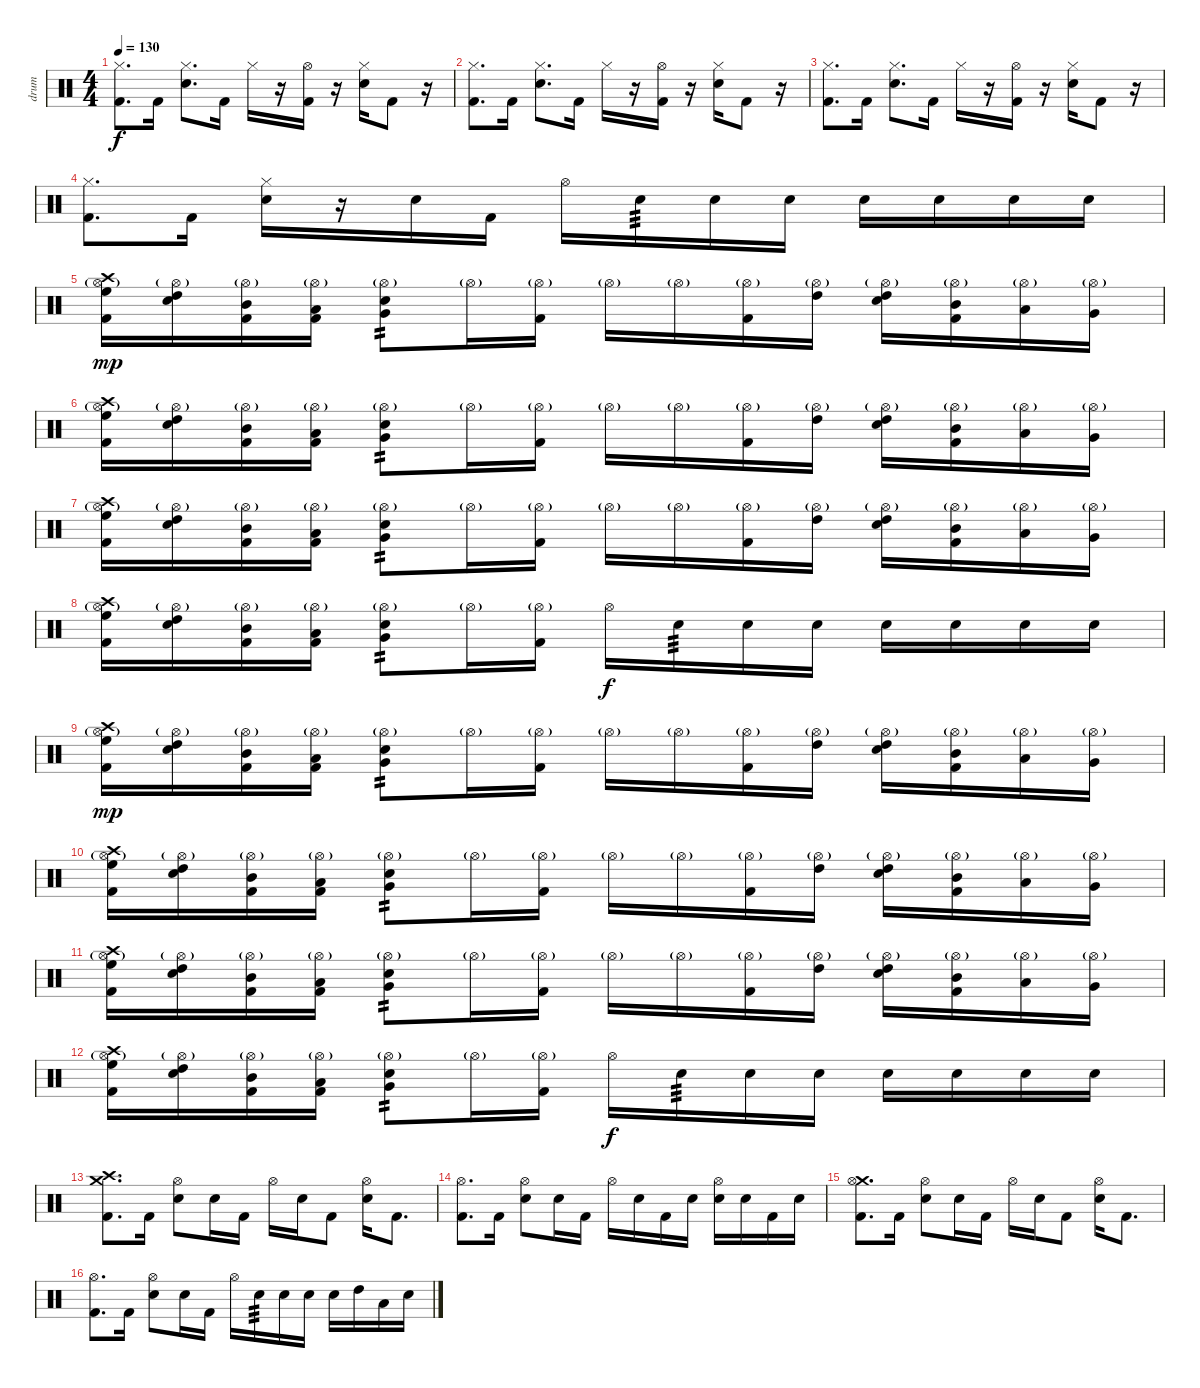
\track ("drum" "drum") {instrument percussion}
\staff {score}
\articulation defaults
\ts (4 4)
\tempo 130
\clef neutral
\ks c
("Hi-Hat (closed)" "Kick (hit) 2").8{d dy f} "Kick (hit) 2".16 ("Hi-Hat (closed)" "Electric Snare (hit)").8{d} "Kick (hit) 2".16 "Hi-Hat (closed)".16 r.16 ("Hi-Hat (open)" "Kick (hit) 2").16 r.16 ("Hi-Hat (closed)" "Electric Snare (hit)").16 "Kick (hit) 2".8 r.16 |
("Hi-Hat (closed)" "Kick (hit) 2").8{d} "Kick (hit) 2".16 ("Hi-Hat (closed)" "Electric Snare (hit)").8{d} "Kick (hit) 2".16 "Hi-Hat (closed)".16 r.16 ("Hi-Hat (open)" "Kick (hit) 2").16 r.16 ("Hi-Hat (closed)" "Electric Snare (hit)").16 "Kick (hit) 2".8 r.16 |
("Hi-Hat (closed)" "Kick (hit) 2").8{d} "Kick (hit) 2".16 ("Hi-Hat (closed)" "Electric Snare (hit)").8{d} "Kick (hit) 2".16 "Hi-Hat (closed)".16 r.16 ("Hi-Hat (open)" "Kick (hit) 2").16 r.16 ("Hi-Hat (closed)" "Electric Snare (hit)").16 "Kick (hit) 2".8 r.16 |
("Hi-Hat (closed)" "Kick (hit) 2").8{d} "Kick (hit) 2".16 ("Hi-Hat (closed)" "Electric Snare (hit)").16 r.16 "Electric Snare (hit)".16 "Kick (hit) 2".16 "Hi-Hat (open)".16 "Electric Snare (hit)".16{tp 3} "Electric Snare (hit)".16 "Electric Snare (hit)".16 "Electric Snare (hit)".16 "Electric Snare (hit)".16 "Electric Snare (hit)".16 "Electric Snare (hit)".16 |
("Crash high (hit)" "Hi-Hat (open)"{g} "High Floor Tom (hit)" "Kick (hit) 2").16{dy mp} ("Hi-Hat (open)"{g} "High Tom (hit)" "Electric Snare (hit)").16 ("Hi-Hat (open)"{g} "Mid Tom (hit)" "Kick (hit) 2").16 ("Hi-Hat (open)"{g} "Low Tom (hit)" "Kick (hit) 2").16 ("Hi-Hat (open)"{g} "Very Low Tom (hit)" "Electric Snare (hit)").8{tp 2} "Hi-Hat (open)"{g}.16 ("Hi-Hat (open)"{g} "Kick (hit) 2").16 "Hi-Hat (open)"{g}.16 "Hi-Hat (open)"{g}.16 ("Hi-Hat (open)"{g} "Kick (hit) 2").16 ("Hi-Hat (open)"{g} "High Tom (hit)").16 ("Hi-Hat (open)"{g} "High Tom (hit)" "Electric Snare (hit)").16 ("Hi-Hat (open)"{g} "Mid Tom (hit)" "Kick (hit) 2").16 ("Hi-Hat (open)"{g} "Low Tom (hit)").16 ("Hi-Hat (open)"{g} "Very Low Tom (hit)").16 |
("Crash high (hit)" "Hi-Hat (open)"{g} "High Floor Tom (hit)" "Kick (hit) 2").16 ("Hi-Hat (open)"{g} "High Tom (hit)" "Electric Snare (hit)").16 ("Hi-Hat (open)"{g} "Mid Tom (hit)" "Kick (hit) 2").16 ("Hi-Hat (open)"{g} "Low Tom (hit)" "Kick (hit) 2").16 ("Hi-Hat (open)"{g} "Very Low Tom (hit)" "Electric Snare (hit)").8{tp 2} "Hi-Hat (open)"{g}.16 ("Hi-Hat (open)"{g} "Kick (hit) 2").16 "Hi-Hat (open)"{g}.16 "Hi-Hat (open)"{g}.16 ("Hi-Hat (open)"{g} "Kick (hit) 2").16 ("Hi-Hat (open)"{g} "High Tom (hit)").16 ("Hi-Hat (open)"{g} "High Tom (hit)" "Electric Snare (hit)").16 ("Hi-Hat (open)"{g} "Mid Tom (hit)" "Kick (hit) 2").16 ("Hi-Hat (open)"{g} "Low Tom (hit)").16 ("Hi-Hat (open)"{g} "Very Low Tom (hit)").16 |
("Crash high (hit)" "Hi-Hat (open)"{g} "High Floor Tom (hit)" "Kick (hit) 2").16 ("Hi-Hat (open)"{g} "High Tom (hit)" "Electric Snare (hit)").16 ("Hi-Hat (open)"{g} "Mid Tom (hit)" "Kick (hit) 2").16 ("Hi-Hat (open)"{g} "Low Tom (hit)" "Kick (hit) 2").16 ("Hi-Hat (open)"{g} "Very Low Tom (hit)" "Electric Snare (hit)").8{tp 2} "Hi-Hat (open)"{g}.16 ("Hi-Hat (open)"{g} "Kick (hit) 2").16 "Hi-Hat (open)"{g}.16 "Hi-Hat (open)"{g}.16 ("Hi-Hat (open)"{g} "Kick (hit) 2").16 ("Hi-Hat (open)"{g} "High Tom (hit)").16 ("Hi-Hat (open)"{g} "High Tom (hit)" "Electric Snare (hit)").16 ("Hi-Hat (open)"{g} "Mid Tom (hit)" "Kick (hit) 2").16 ("Hi-Hat (open)"{g} "Low Tom (hit)").16 ("Hi-Hat (open)"{g} "Very Low Tom (hit)").16 |
("Crash high (hit)" "Hi-Hat (open)"{g} "High Floor Tom (hit)" "Kick (hit) 2").16 ("Hi-Hat (open)"{g} "High Tom (hit)" "Electric Snare (hit)").16 ("Hi-Hat (open)"{g} "Mid Tom (hit)" "Kick (hit) 2").16 ("Hi-Hat (open)"{g} "Low Tom (hit)" "Kick (hit) 2").16 ("Hi-Hat (open)"{g} "Very Low Tom (hit)" "Electric Snare (hit)").8{tp 2} "Hi-Hat (open)"{g}.16 ("Hi-Hat (open)"{g} "Kick (hit) 2").16 "Hi-Hat (open)".16{dy f} "Electric Snare (hit)".16{tp 3} "Electric Snare (hit)".16 "Electric Snare (hit)".16 "Electric Snare (hit)".16 "Electric Snare (hit)".16 "Electric Snare (hit)".16 "Electric Snare (hit)".16 |
("Crash high (hit)" "Hi-Hat (open)"{g} "High Floor Tom (hit)" "Kick (hit) 2").16{dy mp} ("Hi-Hat (open)"{g} "High Tom (hit)" "Electric Snare (hit)").16 ("Hi-Hat (open)"{g} "Mid Tom (hit)" "Kick (hit) 2").16 ("Hi-Hat (open)"{g} "Low Tom (hit)" "Kick (hit) 2").16 ("Hi-Hat (open)"{g} "Very Low Tom (hit)" "Electric Snare (hit)").8{tp 2} "Hi-Hat (open)"{g}.16 ("Hi-Hat (open)"{g} "Kick (hit) 2").16 "Hi-Hat (open)"{g}.16 "Hi-Hat (open)"{g}.16 ("Hi-Hat (open)"{g} "Kick (hit) 2").16 ("Hi-Hat (open)"{g} "High Tom (hit)").16 ("Hi-Hat (open)"{g} "High Tom (hit)" "Electric Snare (hit)").16 ("Hi-Hat (open)"{g} "Mid Tom (hit)" "Kick (hit) 2").16 ("Hi-Hat (open)"{g} "Low Tom (hit)").16 ("Hi-Hat (open)"{g} "Very Low Tom (hit)").16 |
("Crash high (hit)" "Hi-Hat (open)"{g} "High Floor Tom (hit)" "Kick (hit) 2").16 ("Hi-Hat (open)"{g} "High Tom (hit)" "Electric Snare (hit)").16 ("Hi-Hat (open)"{g} "Mid Tom (hit)" "Kick (hit) 2").16 ("Hi-Hat (open)"{g} "Low Tom (hit)" "Kick (hit) 2").16 ("Hi-Hat (open)"{g} "Very Low Tom (hit)" "Electric Snare (hit)").8{tp 2} "Hi-Hat (open)"{g}.16 ("Hi-Hat (open)"{g} "Kick (hit) 2").16 "Hi-Hat (open)"{g}.16 "Hi-Hat (open)"{g}.16 ("Hi-Hat (open)"{g} "Kick (hit) 2").16 ("Hi-Hat (open)"{g} "High Tom (hit)").16 ("Hi-Hat (open)"{g} "High Tom (hit)" "Electric Snare (hit)").16 ("Hi-Hat (open)"{g} "Mid Tom (hit)" "Kick (hit) 2").16 ("Hi-Hat (open)"{g} "Low Tom (hit)").16 ("Hi-Hat (open)"{g} "Very Low Tom (hit)").16 |
("Crash high (hit)" "Hi-Hat (open)"{g} "High Floor Tom (hit)" "Kick (hit) 2").16 ("Hi-Hat (open)"{g} "High Tom (hit)" "Electric Snare (hit)").16 ("Hi-Hat (open)"{g} "Mid Tom (hit)" "Kick (hit) 2").16 ("Hi-Hat (open)"{g} "Low Tom (hit)" "Kick (hit) 2").16 ("Hi-Hat (open)"{g} "Very Low Tom (hit)" "Electric Snare (hit)").8{tp 2} "Hi-Hat (open)"{g}.16 ("Hi-Hat (open)"{g} "Kick (hit) 2").16 "Hi-Hat (open)"{g}.16 "Hi-Hat (open)"{g}.16 ("Hi-Hat (open)"{g} "Kick (hit) 2").16 ("Hi-Hat (open)"{g} "High Tom (hit)").16 ("Hi-Hat (open)"{g} "High Tom (hit)" "Electric Snare (hit)").16 ("Hi-Hat (open)"{g} "Mid Tom (hit)" "Kick (hit) 2").16 ("Hi-Hat (open)"{g} "Low Tom (hit)").16 ("Hi-Hat (open)"{g} "Very Low Tom (hit)").16 |
("Crash high (hit)" "Hi-Hat (open)"{g} "High Floor Tom (hit)" "Kick (hit) 2").16 ("Hi-Hat (open)"{g} "High Tom (hit)" "Electric Snare (hit)").16 ("Hi-Hat (open)"{g} "Mid Tom (hit)" "Kick (hit) 2").16 ("Hi-Hat (open)"{g} "Low Tom (hit)" "Kick (hit) 2").16 ("Hi-Hat (open)"{g} "Very Low Tom (hit)" "Electric Snare (hit)").8{tp 2} "Hi-Hat (open)"{g}.16 ("Hi-Hat (open)"{g} "Kick (hit) 2").16 "Hi-Hat (open)".16{dy f} "Electric Snare (hit)".16{tp 3} "Electric Snare (hit)".16 "Electric Snare (hit)".16 "Electric Snare (hit)".16 "Electric Snare (hit)".16 "Electric Snare (hit)".16 "Electric Snare (hit)".16 |
("Crash medium (hit)" "Crash high (hit)" "Kick (hit) 2").8{d} "Kick (hit) 2".16 ("Hi-Hat (open)" "Electric Snare (hit)").8 "Electric Snare (hit)".16 "Kick (hit) 2".16 "Hi-Hat (open)".16 "Electric Snare (hit)".16 "Kick (hit) 2".8 ("Hi-Hat (open)" "Electric Snare (hit)").16 "Kick (hit) 2".8{d} |
("Hi-Hat (open)" "Kick (hit) 2").8{d} "Kick (hit) 2".16 ("Hi-Hat (open)" "Electric Snare (hit)").8 "Electric Snare (hit)".16 "Kick (hit) 2".16 "Hi-Hat (open)".16 "Electric Snare (hit)".16 "Kick (hit) 2".16 "Electric Snare (hit)".16 ("Hi-Hat (open)" "Electric Snare (hit)").16 "Electric Snare (hit)".16 "Kick (hit) 2".16 "Electric Snare (hit)".16 |
("Crash medium (hit)" "Hi-Hat (open)" "Kick (hit) 2").8{d} "Kick (hit) 2".16 ("Hi-Hat (open)" "Electric Snare (hit)").8 "Electric Snare (hit)".16 "Kick (hit) 2".16 "Hi-Hat (open)".16 "Electric Snare (hit)".16 "Kick (hit) 2".8 ("Hi-Hat (open)" "Electric Snare (hit)").16 "Kick (hit) 2".8{d} |
("Hi-Hat (open)" "Kick (hit) 2").8{d} "Kick (hit) 2".16 ("Hi-Hat (open)" "Electric Snare (hit)").8 "Electric Snare (hit)".16 "Kick (hit) 2".16 "Hi-Hat (open)".16 "Electric Snare (hit)".16{tp 3} "Electric Snare (hit)".16 "Electric Snare (hit)".16 "Electric Snare (hit)".16 "High Tom (hit)".16 "Low Tom (hit)".16 "Electric Snare (hit)".16
